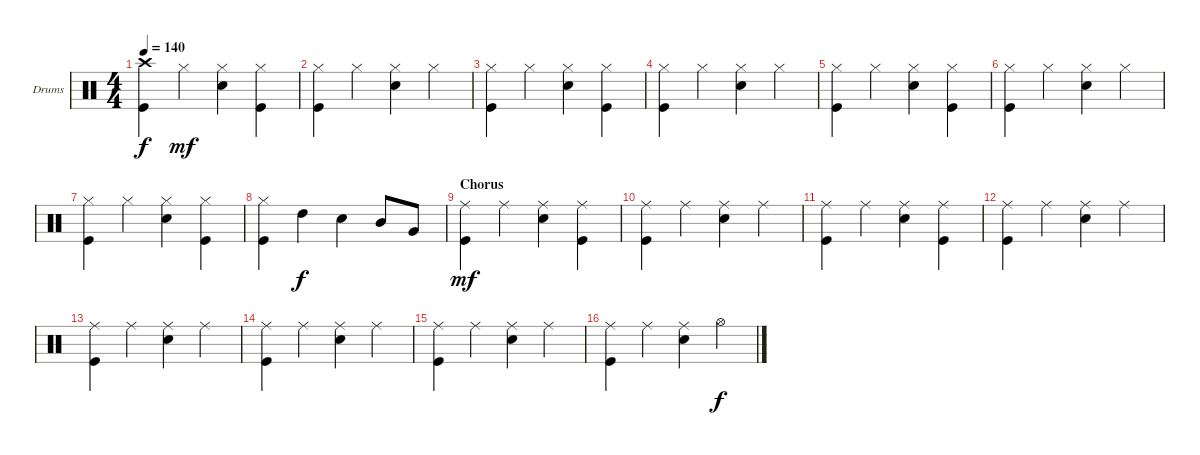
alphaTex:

\bracketExtendMode groupsimilarinstruments
\firstSystemTrackNameOrientation horizontal
\otherSystemsTrackNameOrientation horizontal
\track ("Drumkit (Ray Cooper)" "Drums") {instrument percussion}
\staff {score}
\articulation defaults
\ts (4 4)
\tempo 140
\clef neutral
\scale
1.07945
\ks c
("Kick (hit)" "Crash high (hit)").4{dy f} "Hi-Hat (closed)".4{dy mf} ("Hi-Hat (closed)" "Snare (hit) 2").4 ("Hi-Hat (closed)" "Kick (hit)").4 |
\scale
0.973518 ("Hi-Hat (closed)" "Kick (hit)").4 "Hi-Hat (closed)".4 ("Hi-Hat (closed)" "Snare (hit) 2").4 "Hi-Hat (closed)".4 |
\scale
0.973518 ("Kick (hit)" "Hi-Hat (closed)").4 "Hi-Hat (closed)".4 ("Hi-Hat (closed)" "Snare (hit) 2").4 ("Hi-Hat (closed)" "Kick (hit)").4 |
\scale
0.973518 ("Hi-Hat (closed)" "Kick (hit)").4 "Hi-Hat (closed)".4 ("Hi-Hat (closed)" "Snare (hit) 2").4 "Hi-Hat (closed)".4 |
\scale
1.07945 ("Kick (hit)" "Hi-Hat (closed)").4 "Hi-Hat (closed)".4 ("Hi-Hat (closed)" "Snare (hit) 2").4 ("Hi-Hat (closed)" "Kick (hit)").4 |
\scale
0.973518 ("Hi-Hat (closed)" "Kick (hit)").4 "Hi-Hat (closed)".4 ("Hi-Hat (closed)" "Snare (hit) 2").4 "Hi-Hat (closed)".4 |
\scale
0.973518 ("Kick (hit)" "Hi-Hat (closed)").4 "Hi-Hat (closed)".4 ("Hi-Hat (closed)" "Snare (hit) 2").4 ("Hi-Hat (closed)" "Kick (hit)").4 |
\scale
0.973518 ("Hi-Hat (closed)" "Kick (hit)").4 "High Tom (hit)".4{dy f} "Snare (hit) 2".4 "Mid Tom (hit)".8 "Very Low Tom (hit)".8 |
\section ("" "Chorus")
\scale
1.07945 ("Kick (hit)" "Ride (middle)").4{dy mf} "Ride (middle)".4 ("Snare (hit) 2" "Ride (middle)").4 ("Kick (hit)" "Ride (middle)").4 |
\scale
0.973518 ("Kick (hit)" "Ride (middle)").4 "Ride (middle)".4 ("Snare (hit) 2" "Ride (middle)").4 "Ride (middle)".4 |
\scale
0.973518 ("Kick (hit)" "Ride (middle)").4 "Ride (middle)".4 ("Snare (hit) 2" "Ride (middle)").4 ("Kick (hit)" "Ride (middle)").4 |
\scale
0.973518 ("Kick (hit)" "Ride (middle)").4 "Ride (middle)".4 ("Snare (hit) 2" "Ride (middle)").4 "Ride (middle)".4 |
\scale
1.07945 ("Ride (middle)" "Kick (hit)").4 "Ride (middle)".4 ("Ride (middle)" "Snare (hit) 2").4 "Ride (middle)".4 |
\scale
0.973518 ("Ride (middle)" "Kick (hit)").4 "Ride (middle)".4 ("Ride (middle)" "Snare (hit) 2").4 "Ride (middle)".4 |
\scale
0.973518 ("Ride (middle)" "Kick (hit)").4 "Ride (middle)".4 ("Ride (middle)" "Snare (hit) 2").4 "Ride (middle)".4 |
\scale
0.973518 ("Ride (middle)" "Kick (hit)").4 "Ride (middle)".4 ("Ride (middle)" "Snare (hit) 2").4 "Hi-Hat (open)".4{dy f}
